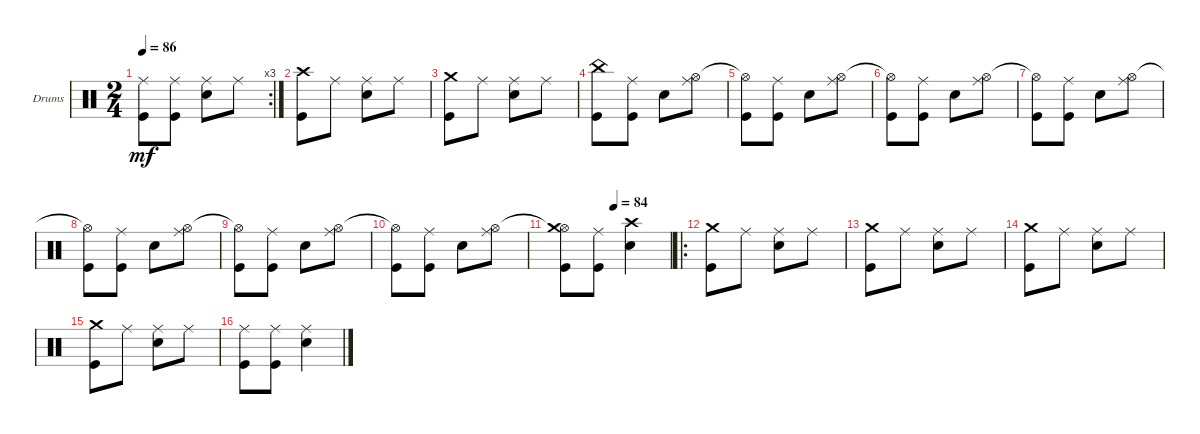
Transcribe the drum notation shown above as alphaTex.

\bracketExtendMode groupsimilarinstruments
\firstSystemTrackNameOrientation horizontal
\otherSystemsTrackNameOrientation horizontal
\track ("Drumkit" "Drums") {instrument percussion}
\staff {score}
\articulation defaults
\rc 3
\ts (2 4)
\tempo 86
\clef neutral
\scale
0.355932
\ks c
("Ride (middle)" "Kick (hit)").8{dy mf} ("Ride (middle)" "Kick (hit)").8 ("Snare (hit) 2" "Ride (middle)").8 "Ride (middle)".8 |
\scale
0.322034 ("Kick (hit)" "Crash high (hit)").8 "Ride (middle)".8 ("Snare (hit) 2" "Ride (middle)").8 "Ride (middle)".8 |
\scale
0.333333 ("Kick (hit)" "Crash medium (hit)").8 "Ride (middle)".8 ("Snare (hit) 2" "Ride (middle)").8 "Ride (middle)".8 |
\scale
0.333333 ("Kick (hit)" "China (hit)").8 ("Kick (hit)" "Ride (middle)").8 "Snare (hit) 2".8 ("Ride (middle)" "Hi-Hat (open)").8 |
\scale
0.333333 ("Kick (hit)" "Hi-Hat (open)"{t}).8 ("Kick (hit)" "Ride (middle)").8 "Snare (hit) 2".8 ("Ride (middle)" "Hi-Hat (open)").8 |
\scale
0.333333 ("Kick (hit)" "Hi-Hat (open)"{t}).8 ("Kick (hit)" "Ride (middle)").8 "Snare (hit) 2".8 ("Ride (middle)" "Hi-Hat (open)").8 |
\scale
0.333333 ("Kick (hit)" "Hi-Hat (open)"{t}).8 ("Kick (hit)" "Ride (middle)").8 "Snare (hit) 2".8 ("Ride (middle)" "Hi-Hat (open)").8 |
\scale
0.333333 ("Kick (hit)" "Hi-Hat (open)"{t}).8 ("Kick (hit)" "Ride (middle)").8 "Snare (hit) 2".8 ("Ride (middle)" "Hi-Hat (open)").8 |
\scale
0.333333 ("Kick (hit)" "Hi-Hat (open)"{t}).8 ("Kick (hit)" "Ride (middle)").8 "Snare (hit) 2".8 ("Ride (middle)" "Hi-Hat (open)").8 |
\scale
0.333333 ("Kick (hit)" "Hi-Hat (open)"{t}).8 ("Kick (hit)" "Ride (middle)").8 "Snare (hit) 2".8 ("Ride (middle)" "Hi-Hat (open)").8 |
\tempo (84 0.5)
\scale
0.333333 ("Kick (hit)" "Hi-Hat (open)"{t} "Crash medium (hit)").8 ("Kick (hit)" "Ride (middle)").8 ("Snare (hit) 2" "Crash high (hit)").4 |
\ro
\scale
0.377049 ("Crash medium (hit)" "Kick (hit)").8 "Ride (middle)".8 ("Ride (middle)" "Snare (hit) 2").8 "Ride (middle)".8 |
\scale
0.311475 ("Crash medium (hit)" "Kick (hit)").8 "Ride (middle)".8 ("Ride (middle)" "Snare (hit) 2").8 "Ride (middle)".8 |
\scale
0.311475 ("Crash medium (hit)" "Kick (hit)").8 "Ride (middle)".8 ("Ride (middle)" "Snare (hit) 2").8 "Ride (middle)".8 |
\scale
0.333333 ("Crash medium (hit)" "Kick (hit)").8 "Ride (middle)".8 ("Ride (middle)" "Snare (hit) 2").8 "Ride (middle)".8 |
\scale
0.333333 ("Kick (hit)" "Ride (middle)").8 ("Kick (hit)" "Ride (middle)").8 ("Ride (middle)" "Snare (hit) 2").4
